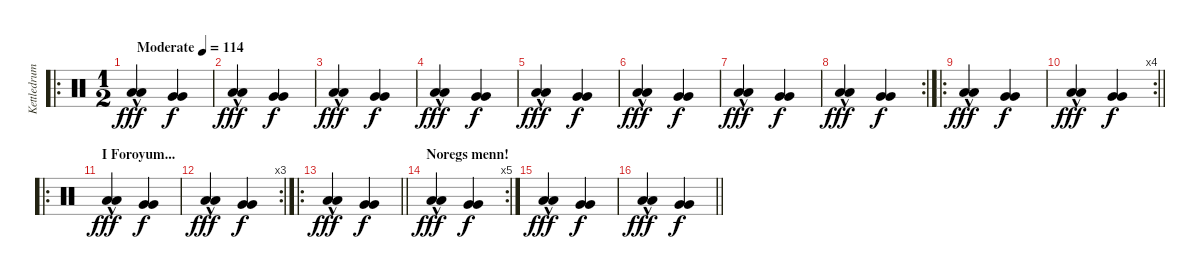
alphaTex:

\track ("Kettledrum" "Kettledrum") {instrument percussion}
\staff {score}
\articulation defaults
\ro
\ts (1 2)
\tempo (114 "Moderate")
\clef neutral
\ks c
("Low Floor Tom (hit)"{hac} "Low Floor Tom (hit)"{hac}).4{dy fff} ("Very Low Tom (hit)" "Very Low Tom (hit)").4{dy f} |
("Low Floor Tom (hit)"{hac} "Low Floor Tom (hit)"{hac}).4{dy fff} ("Very Low Tom (hit)" "Very Low Tom (hit)").4{dy f} |
("Low Floor Tom (hit)"{hac} "Low Floor Tom (hit)"{hac}).4{dy fff} ("Very Low Tom (hit)" "Very Low Tom (hit)").4{dy f} |
("Low Floor Tom (hit)"{hac} "Low Floor Tom (hit)"{hac}).4{dy fff} ("Very Low Tom (hit)" "Very Low Tom (hit)").4{dy f} |
("Low Floor Tom (hit)"{hac} "Low Floor Tom (hit)"{hac}).4{dy fff} ("Very Low Tom (hit)" "Very Low Tom (hit)").4{dy f} |
("Low Floor Tom (hit)"{hac} "Low Floor Tom (hit)"{hac}).4{dy fff} ("Very Low Tom (hit)" "Very Low Tom (hit)").4{dy f} |
("Low Floor Tom (hit)"{hac} "Low Floor Tom (hit)"{hac}).4{dy fff} ("Very Low Tom (hit)" "Very Low Tom (hit)").4{dy f} |
\rc 2
("Low Floor Tom (hit)"{hac} "Low Floor Tom (hit)"{hac}).4{dy fff} ("Very Low Tom (hit)" "Very Low Tom (hit)").4{dy f} |
\ro
("Low Floor Tom (hit)"{hac} "Low Floor Tom (hit)"{hac}).4{dy fff} ("Very Low Tom (hit)" "Very Low Tom (hit)").4{dy f} |
\rc 4
\barLineRight lightlight
("Low Floor Tom (hit)"{hac} "Low Floor Tom (hit)"{hac}).4{dy fff} ("Very Low Tom (hit)" "Very Low Tom (hit)").4{dy f} |
\ro
\section ("" "I Foroyum...")
("Low Floor Tom (hit)"{hac} "Low Floor Tom (hit)"{hac}).4{dy fff} ("Very Low Tom (hit)" "Very Low Tom (hit)").4{dy f} |
\rc 3
("Low Floor Tom (hit)"{hac} "Low Floor Tom (hit)"{hac}).4{dy fff} ("Very Low Tom (hit)" "Very Low Tom (hit)").4{dy f} |
\ro
\barLineRight lightlight
("Low Floor Tom (hit)"{hac} "Low Floor Tom (hit)"{hac}).4{dy fff} ("Very Low Tom (hit)" "Very Low Tom (hit)").4{dy f} |
\rc 5
\section ("" "Noregs menn!")
("Low Floor Tom (hit)"{hac} "Low Floor Tom (hit)"{hac}).4{dy fff} ("Very Low Tom (hit)" "Very Low Tom (hit)").4{dy f} |
("Low Floor Tom (hit)"{hac} "Low Floor Tom (hit)"{hac}).4{dy fff} ("Very Low Tom (hit)" "Very Low Tom (hit)").4{dy f} |
\barLineRight lightlight
("Low Floor Tom (hit)"{hac} "Low Floor Tom (hit)"{hac}).4{dy fff} ("Very Low Tom (hit)" "Very Low Tom (hit)").4{dy f}
